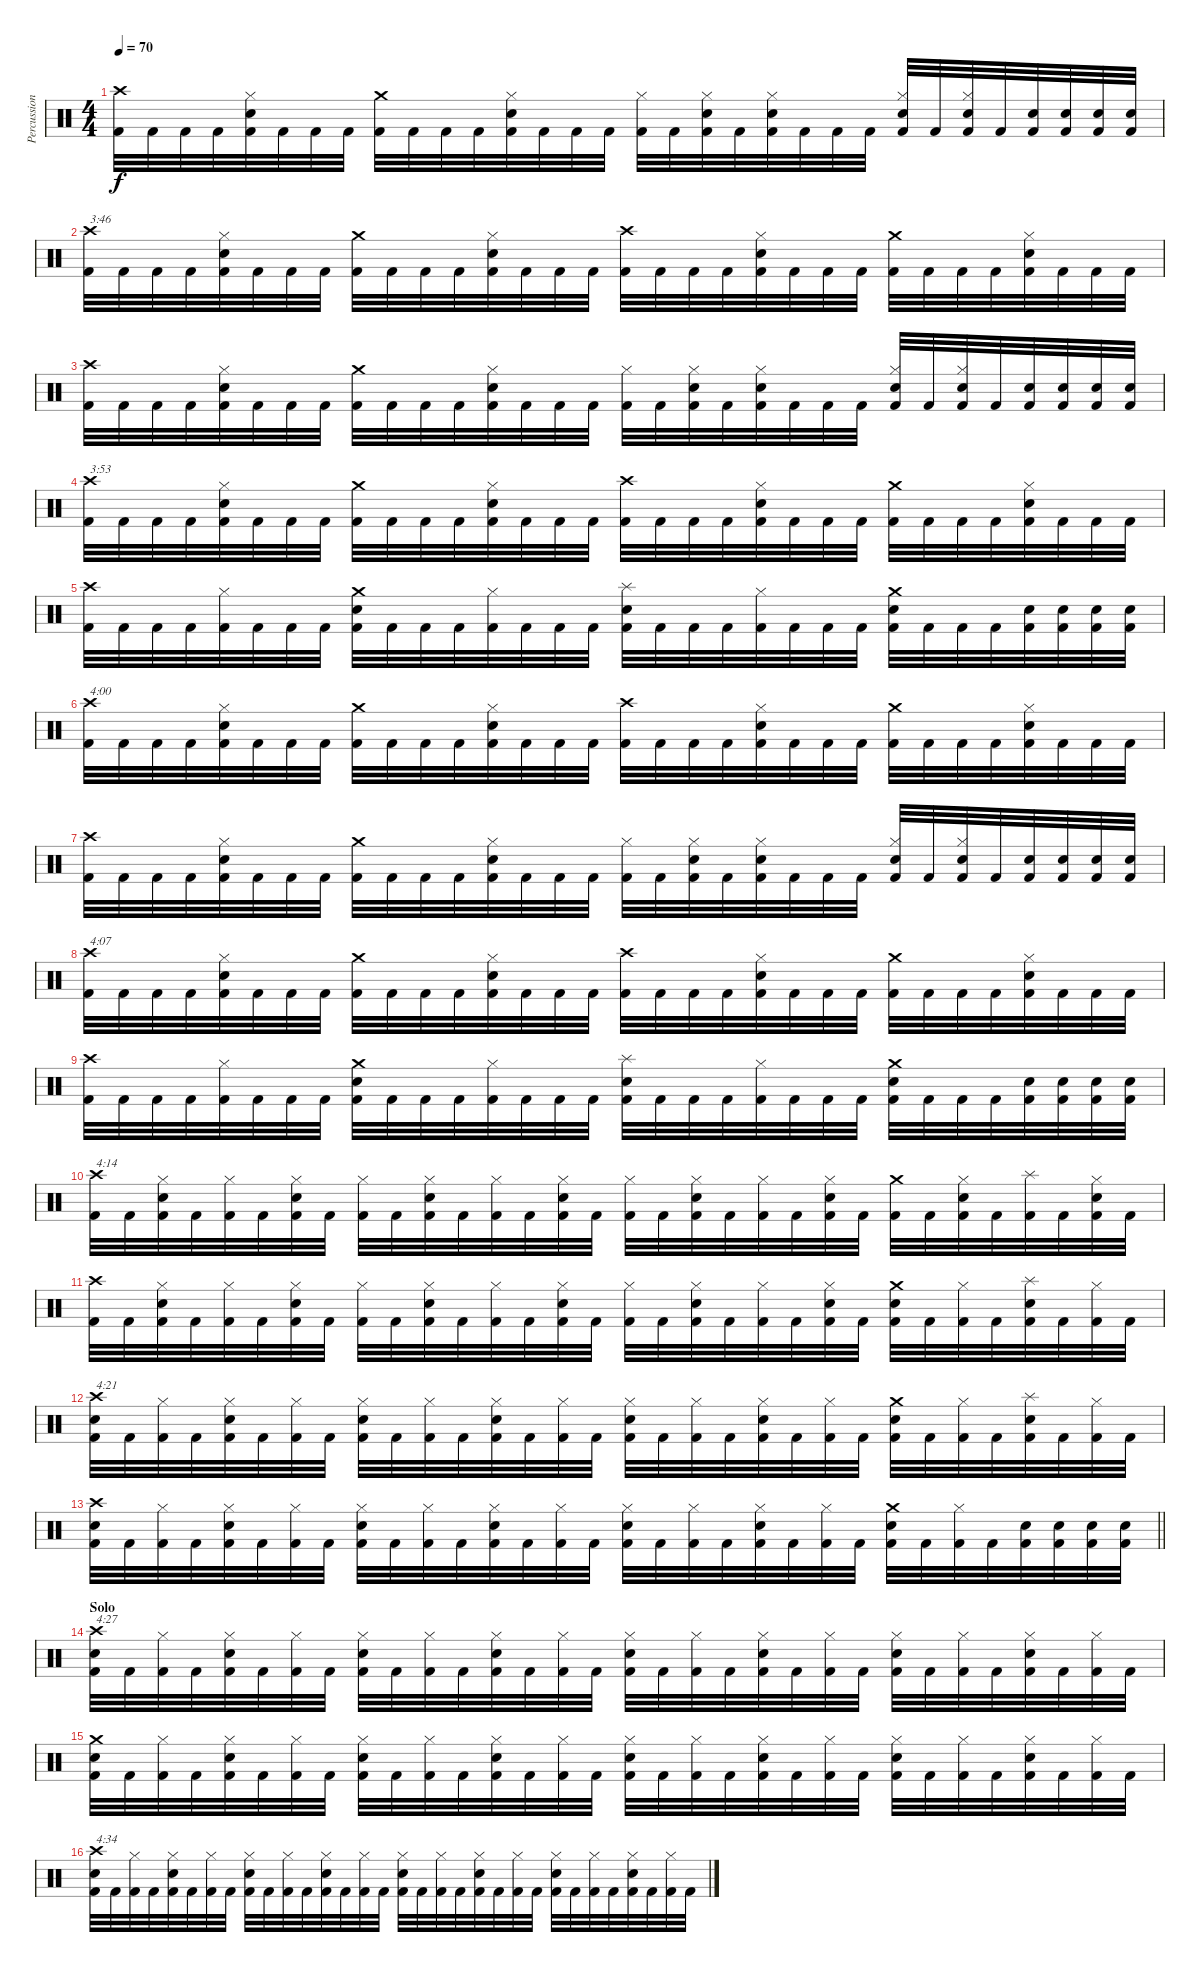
\track ("Percussion" "Percussion") {instrument percussion}
\staff {score}
\articulation defaults
\ts (4 4)
\tempo 70
\clef neutral
\ks c
("Crash high (hit)" "Kick (hit) 2").32{dy f} "Kick (hit) 2".32 "Kick (hit) 2".32 "Kick (hit) 2".32 ("Hi-Hat (closed)" "Snare (hit) 2" "Kick (hit) 2").32 "Kick (hit) 2".32 "Kick (hit) 2".32 "Kick (hit) 2".32 ("Crash medium (hit)" "Kick (hit) 2").32 "Kick (hit) 2".32 "Kick (hit) 2".32 "Kick (hit) 2".32 ("Hi-Hat (closed)" "Snare (hit) 2" "Kick (hit) 2").32 "Kick (hit) 2".32 "Kick (hit) 2".32 "Kick (hit) 2".32 ("Hi-Hat (closed)" "Kick (hit) 2").32 "Kick (hit) 2".32 ("Hi-Hat (closed)" "Snare (hit) 2" "Kick (hit) 2").32 "Kick (hit) 2".32 ("Hi-Hat (closed)" "Snare (hit) 2" "Kick (hit) 2").32 "Kick (hit) 2".32 "Kick (hit) 2".32 "Kick (hit) 2".32 ("Hi-Hat (closed)" "Snare (hit) 2" "Kick (hit) 2").32 "Kick (hit) 2".32 ("Hi-Hat (closed)" "Snare (hit) 2" "Kick (hit) 2").32 "Kick (hit) 2".32 ("Snare (hit) 2" "Kick (hit) 2").32 ("Snare (hit) 2" "Kick (hit) 2").32 ("Snare (hit) 2" "Kick (hit) 2").32 ("Snare (hit) 2" "Kick (hit) 2").32 |
("Crash high (hit)" "Kick (hit) 2").32{txt "3:46"} "Kick (hit) 2".32 "Kick (hit) 2".32 "Kick (hit) 2".32 ("Hi-Hat (closed)" "Snare (hit) 2" "Kick (hit) 2").32 "Kick (hit) 2".32 "Kick (hit) 2".32 "Kick (hit) 2".32 ("Crash medium (hit)" "Kick (hit) 2").32 "Kick (hit) 2".32 "Kick (hit) 2".32 "Kick (hit) 2".32 ("Hi-Hat (closed)" "Snare (hit) 2" "Kick (hit) 2").32 "Kick (hit) 2".32 "Kick (hit) 2".32 "Kick (hit) 2".32 ("Crash high (hit)" "Kick (hit) 2").32 "Kick (hit) 2".32 "Kick (hit) 2".32 "Kick (hit) 2".32 ("Hi-Hat (closed)" "Snare (hit) 2" "Kick (hit) 2").32 "Kick (hit) 2".32 "Kick (hit) 2".32 "Kick (hit) 2".32 ("Crash medium (hit)" "Kick (hit) 2").32 "Kick (hit) 2".32 "Kick (hit) 2".32 "Kick (hit) 2".32 ("Hi-Hat (closed)" "Snare (hit) 2" "Kick (hit) 2").32 "Kick (hit) 2".32 "Kick (hit) 2".32 "Kick (hit) 2".32 |
("Crash high (hit)" "Kick (hit) 2").32 "Kick (hit) 2".32 "Kick (hit) 2".32 "Kick (hit) 2".32 ("Hi-Hat (closed)" "Snare (hit) 2" "Kick (hit) 2").32 "Kick (hit) 2".32 "Kick (hit) 2".32 "Kick (hit) 2".32 ("Crash medium (hit)" "Kick (hit) 2").32 "Kick (hit) 2".32 "Kick (hit) 2".32 "Kick (hit) 2".32 ("Hi-Hat (closed)" "Snare (hit) 2" "Kick (hit) 2").32 "Kick (hit) 2".32 "Kick (hit) 2".32 "Kick (hit) 2".32 ("Hi-Hat (closed)" "Kick (hit) 2").32 "Kick (hit) 2".32 ("Hi-Hat (closed)" "Snare (hit) 2" "Kick (hit) 2").32 "Kick (hit) 2".32 ("Hi-Hat (closed)" "Snare (hit) 2" "Kick (hit) 2").32 "Kick (hit) 2".32 "Kick (hit) 2".32 "Kick (hit) 2".32 ("Hi-Hat (closed)" "Snare (hit) 2" "Kick (hit) 2").32 "Kick (hit) 2".32 ("Hi-Hat (closed)" "Snare (hit) 2" "Kick (hit) 2").32 "Kick (hit) 2".32 ("Snare (hit) 2" "Kick (hit) 2").32 ("Snare (hit) 2" "Kick (hit) 2").32 ("Snare (hit) 2" "Kick (hit) 2").32 ("Snare (hit) 2" "Kick (hit) 2").32 |
("Crash high (hit)" "Kick (hit) 2").32{txt "3:53"} "Kick (hit) 2".32 "Kick (hit) 2".32 "Kick (hit) 2".32 ("Hi-Hat (closed)" "Snare (hit) 2" "Kick (hit) 2").32 "Kick (hit) 2".32 "Kick (hit) 2".32 "Kick (hit) 2".32 ("Crash medium (hit)" "Kick (hit) 2").32 "Kick (hit) 2".32 "Kick (hit) 2".32 "Kick (hit) 2".32 ("Hi-Hat (closed)" "Snare (hit) 2" "Kick (hit) 2").32 "Kick (hit) 2".32 "Kick (hit) 2".32 "Kick (hit) 2".32 ("Crash high (hit)" "Kick (hit) 2").32 "Kick (hit) 2".32 "Kick (hit) 2".32 "Kick (hit) 2".32 ("Hi-Hat (closed)" "Snare (hit) 2" "Kick (hit) 2").32 "Kick (hit) 2".32 "Kick (hit) 2".32 "Kick (hit) 2".32 ("Crash medium (hit)" "Kick (hit) 2").32 "Kick (hit) 2".32 "Kick (hit) 2".32 "Kick (hit) 2".32 ("Hi-Hat (closed)" "Snare (hit) 2" "Kick (hit) 2").32 "Kick (hit) 2".32 "Kick (hit) 2".32 "Kick (hit) 2".32 |
("Crash high (hit)" "Kick (hit) 2").32 "Kick (hit) 2".32 "Kick (hit) 2".32 "Kick (hit) 2".32 ("Hi-Hat (closed)" "Kick (hit) 2").32 "Kick (hit) 2".32 "Kick (hit) 2".32 "Kick (hit) 2".32 ("Crash medium (hit)" "Snare (hit) 2" "Kick (hit) 2").32 "Kick (hit) 2".32 "Kick (hit) 2".32 "Kick (hit) 2".32 ("Hi-Hat (closed)" "Kick (hit) 2").32 "Kick (hit) 2".32 "Kick (hit) 2".32 "Kick (hit) 2".32 ("Splash (hit)" "Snare (hit) 2" "Kick (hit) 2").32 "Kick (hit) 2".32 "Kick (hit) 2".32 "Kick (hit) 2".32 ("Hi-Hat (closed)" "Kick (hit) 2").32 "Kick (hit) 2".32 "Kick (hit) 2".32 "Kick (hit) 2".32 ("Crash medium (hit)" "Snare (hit) 2" "Kick (hit) 2").32 "Kick (hit) 2".32 "Kick (hit) 2".32 "Kick (hit) 2".32 ("Snare (hit) 2" "Kick (hit) 2").32 ("Snare (hit) 2" "Kick (hit) 2").32 ("Snare (hit) 2" "Kick (hit) 2").32 ("Snare (hit) 2" "Kick (hit) 2").32 |
("Crash high (hit)" "Kick (hit) 2").32{txt "4:00"} "Kick (hit) 2".32 "Kick (hit) 2".32 "Kick (hit) 2".32 ("Hi-Hat (closed)" "Snare (hit) 2" "Kick (hit) 2").32 "Kick (hit) 2".32 "Kick (hit) 2".32 "Kick (hit) 2".32 ("Crash medium (hit)" "Kick (hit) 2").32 "Kick (hit) 2".32 "Kick (hit) 2".32 "Kick (hit) 2".32 ("Hi-Hat (closed)" "Snare (hit) 2" "Kick (hit) 2").32 "Kick (hit) 2".32 "Kick (hit) 2".32 "Kick (hit) 2".32 ("Crash high (hit)" "Kick (hit) 2").32 "Kick (hit) 2".32 "Kick (hit) 2".32 "Kick (hit) 2".32 ("Hi-Hat (closed)" "Snare (hit) 2" "Kick (hit) 2").32 "Kick (hit) 2".32 "Kick (hit) 2".32 "Kick (hit) 2".32 ("Crash medium (hit)" "Kick (hit) 2").32 "Kick (hit) 2".32 "Kick (hit) 2".32 "Kick (hit) 2".32 ("Hi-Hat (closed)" "Snare (hit) 2" "Kick (hit) 2").32 "Kick (hit) 2".32 "Kick (hit) 2".32 "Kick (hit) 2".32 |
("Crash high (hit)" "Kick (hit) 2").32 "Kick (hit) 2".32 "Kick (hit) 2".32 "Kick (hit) 2".32 ("Hi-Hat (closed)" "Snare (hit) 2" "Kick (hit) 2").32 "Kick (hit) 2".32 "Kick (hit) 2".32 "Kick (hit) 2".32 ("Crash medium (hit)" "Kick (hit) 2").32 "Kick (hit) 2".32 "Kick (hit) 2".32 "Kick (hit) 2".32 ("Hi-Hat (closed)" "Snare (hit) 2" "Kick (hit) 2").32 "Kick (hit) 2".32 "Kick (hit) 2".32 "Kick (hit) 2".32 ("Hi-Hat (closed)" "Kick (hit) 2").32 "Kick (hit) 2".32 ("Hi-Hat (closed)" "Snare (hit) 2" "Kick (hit) 2").32 "Kick (hit) 2".32 ("Hi-Hat (closed)" "Snare (hit) 2" "Kick (hit) 2").32 "Kick (hit) 2".32 "Kick (hit) 2".32 "Kick (hit) 2".32 ("Hi-Hat (closed)" "Snare (hit) 2" "Kick (hit) 2").32 "Kick (hit) 2".32 ("Hi-Hat (closed)" "Snare (hit) 2" "Kick (hit) 2").32 "Kick (hit) 2".32 ("Snare (hit) 2" "Kick (hit) 2").32 ("Snare (hit) 2" "Kick (hit) 2").32 ("Snare (hit) 2" "Kick (hit) 2").32 ("Snare (hit) 2" "Kick (hit) 2").32 |
("Crash high (hit)" "Kick (hit) 2").32{txt "4:07"} "Kick (hit) 2".32 "Kick (hit) 2".32 "Kick (hit) 2".32 ("Hi-Hat (closed)" "Snare (hit) 2" "Kick (hit) 2").32 "Kick (hit) 2".32 "Kick (hit) 2".32 "Kick (hit) 2".32 ("Crash medium (hit)" "Kick (hit) 2").32 "Kick (hit) 2".32 "Kick (hit) 2".32 "Kick (hit) 2".32 ("Hi-Hat (closed)" "Snare (hit) 2" "Kick (hit) 2").32 "Kick (hit) 2".32 "Kick (hit) 2".32 "Kick (hit) 2".32 ("Crash high (hit)" "Kick (hit) 2").32 "Kick (hit) 2".32 "Kick (hit) 2".32 "Kick (hit) 2".32 ("Hi-Hat (closed)" "Snare (hit) 2" "Kick (hit) 2").32 "Kick (hit) 2".32 "Kick (hit) 2".32 "Kick (hit) 2".32 ("Crash medium (hit)" "Kick (hit) 2").32 "Kick (hit) 2".32 "Kick (hit) 2".32 "Kick (hit) 2".32 ("Hi-Hat (closed)" "Snare (hit) 2" "Kick (hit) 2").32 "Kick (hit) 2".32 "Kick (hit) 2".32 "Kick (hit) 2".32 |
("Crash high (hit)" "Kick (hit) 2").32 "Kick (hit) 2".32 "Kick (hit) 2".32 "Kick (hit) 2".32 ("Hi-Hat (closed)" "Kick (hit) 2").32 "Kick (hit) 2".32 "Kick (hit) 2".32 "Kick (hit) 2".32 ("Crash medium (hit)" "Snare (hit) 2" "Kick (hit) 2").32 "Kick (hit) 2".32 "Kick (hit) 2".32 "Kick (hit) 2".32 ("Hi-Hat (closed)" "Kick (hit) 2").32 "Kick (hit) 2".32 "Kick (hit) 2".32 "Kick (hit) 2".32 ("Splash (hit)" "Snare (hit) 2" "Kick (hit) 2").32 "Kick (hit) 2".32 "Kick (hit) 2".32 "Kick (hit) 2".32 ("Hi-Hat (closed)" "Kick (hit) 2").32 "Kick (hit) 2".32 "Kick (hit) 2".32 "Kick (hit) 2".32 ("Crash medium (hit)" "Snare (hit) 2" "Kick (hit) 2").32 "Kick (hit) 2".32 "Kick (hit) 2".32 "Kick (hit) 2".32 ("Snare (hit) 2" "Kick (hit) 2").32 ("Snare (hit) 2" "Kick (hit) 2").32 ("Snare (hit) 2" "Kick (hit) 2").32 ("Snare (hit) 2" "Kick (hit) 2").32 |
("Crash high (hit)" "Kick (hit) 2").32{txt "4:14"} "Kick (hit) 2".32 ("Hi-Hat (closed)" "Snare (hit) 2" "Kick (hit) 2").32 "Kick (hit) 2".32 ("Hi-Hat (closed)" "Kick (hit) 2").32 "Kick (hit) 2".32 ("Hi-Hat (closed)" "Snare (hit) 2" "Kick (hit) 2").32 "Kick (hit) 2".32 ("Hi-Hat (closed)" "Kick (hit) 2").32 "Kick (hit) 2".32 ("Hi-Hat (closed)" "Snare (hit) 2" "Kick (hit) 2").32 "Kick (hit) 2".32 ("Hi-Hat (closed)" "Kick (hit) 2").32 "Kick (hit) 2".32 ("Hi-Hat (closed)" "Snare (hit) 2" "Kick (hit) 2").32 "Kick (hit) 2".32 ("Hi-Hat (closed)" "Kick (hit) 2").32 "Kick (hit) 2".32 ("Hi-Hat (closed)" "Snare (hit) 2" "Kick (hit) 2").32 "Kick (hit) 2".32 ("Hi-Hat (closed)" "Kick (hit) 2").32 "Kick (hit) 2".32 ("Hi-Hat (closed)" "Snare (hit) 2" "Kick (hit) 2").32 "Kick (hit) 2".32 ("Crash medium (hit)" "Kick (hit) 2").32 "Kick (hit) 2".32 ("Hi-Hat (closed)" "Snare (hit) 2" "Kick (hit) 2").32 "Kick (hit) 2".32 ("Splash (hit)" "Kick (hit) 2").32 "Kick (hit) 2".32 ("Hi-Hat (closed)" "Snare (hit) 2" "Kick (hit) 2").32 "Kick (hit) 2".32 |
("Crash high (hit)" "Kick (hit) 2").32 "Kick (hit) 2".32 ("Hi-Hat (closed)" "Snare (hit) 2" "Kick (hit) 2").32 "Kick (hit) 2".32 ("Hi-Hat (closed)" "Kick (hit) 2").32 "Kick (hit) 2".32 ("Hi-Hat (closed)" "Snare (hit) 2" "Kick (hit) 2").32 "Kick (hit) 2".32 ("Hi-Hat (closed)" "Kick (hit) 2").32 "Kick (hit) 2".32 ("Hi-Hat (closed)" "Snare (hit) 2" "Kick (hit) 2").32 "Kick (hit) 2".32 ("Hi-Hat (closed)" "Kick (hit) 2").32 "Kick (hit) 2".32 ("Hi-Hat (closed)" "Snare (hit) 2" "Kick (hit) 2").32 "Kick (hit) 2".32 ("Hi-Hat (closed)" "Kick (hit) 2").32 "Kick (hit) 2".32 ("Hi-Hat (closed)" "Snare (hit) 2" "Kick (hit) 2").32 "Kick (hit) 2".32 ("Hi-Hat (closed)" "Kick (hit) 2").32 "Kick (hit) 2".32 ("Hi-Hat (closed)" "Snare (hit) 2" "Kick (hit) 2").32 "Kick (hit) 2".32 ("Crash medium (hit)" "Snare (hit) 2" "Kick (hit) 2").32 "Kick (hit) 2".32 ("Hi-Hat (closed)" "Kick (hit) 2").32 "Kick (hit) 2".32 ("Splash (hit)" "Snare (hit) 2" "Kick (hit) 2").32 "Kick (hit) 2".32 ("Hi-Hat (closed)" "Kick (hit) 2").32 "Kick (hit) 2".32 |
("Crash high (hit)" "Snare (hit) 2" "Kick (hit) 2").32{txt "4:21"} "Kick (hit) 2".32 ("Hi-Hat (closed)" "Kick (hit) 2").32 "Kick (hit) 2".32 ("Hi-Hat (closed)" "Snare (hit) 2" "Kick (hit) 2").32 "Kick (hit) 2".32 ("Hi-Hat (closed)" "Kick (hit) 2").32 "Kick (hit) 2".32 ("Hi-Hat (closed)" "Snare (hit) 2" "Kick (hit) 2").32 "Kick (hit) 2".32 ("Hi-Hat (closed)" "Kick (hit) 2").32 "Kick (hit) 2".32 ("Hi-Hat (closed)" "Snare (hit) 2" "Kick (hit) 2").32 "Kick (hit) 2".32 ("Hi-Hat (closed)" "Kick (hit) 2").32 "Kick (hit) 2".32 ("Hi-Hat (closed)" "Snare (hit) 2" "Kick (hit) 2").32 "Kick (hit) 2".32 ("Hi-Hat (closed)" "Kick (hit) 2").32 "Kick (hit) 2".32 ("Hi-Hat (closed)" "Snare (hit) 2" "Kick (hit) 2").32 "Kick (hit) 2".32 ("Hi-Hat (closed)" "Kick (hit) 2").32 "Kick (hit) 2".32 ("Crash medium (hit)" "Snare (hit) 2" "Kick (hit) 2").32 "Kick (hit) 2".32 ("Hi-Hat (closed)" "Kick (hit) 2").32 "Kick (hit) 2".32 ("Splash (hit)" "Snare (hit) 2" "Kick (hit) 2").32 "Kick (hit) 2".32 ("Hi-Hat (closed)" "Kick (hit) 2").32 "Kick (hit) 2".32 |
\barLineRight lightlight
("Crash high (hit)" "Snare (hit) 2" "Kick (hit) 2").32 "Kick (hit) 2".32 ("Hi-Hat (closed)" "Kick (hit) 2").32 "Kick (hit) 2".32 ("Hi-Hat (closed)" "Snare (hit) 2" "Kick (hit) 2").32 "Kick (hit) 2".32 ("Hi-Hat (closed)" "Kick (hit) 2").32 "Kick (hit) 2".32 ("Hi-Hat (closed)" "Snare (hit) 2" "Kick (hit) 2").32 "Kick (hit) 2".32 ("Hi-Hat (closed)" "Kick (hit) 2").32 "Kick (hit) 2".32 ("Hi-Hat (closed)" "Snare (hit) 2" "Kick (hit) 2").32 "Kick (hit) 2".32 ("Hi-Hat (closed)" "Kick (hit) 2").32 "Kick (hit) 2".32 ("Hi-Hat (closed)" "Snare (hit) 2" "Kick (hit) 2").32 "Kick (hit) 2".32 ("Hi-Hat (closed)" "Kick (hit) 2").32 "Kick (hit) 2".32 ("Hi-Hat (closed)" "Snare (hit) 2" "Kick (hit) 2").32 "Kick (hit) 2".32 ("Hi-Hat (closed)" "Kick (hit) 2").32 "Kick (hit) 2".32 ("Crash medium (hit)" "Snare (hit) 2" "Kick (hit) 2").32 "Kick (hit) 2".32 ("Hi-Hat (closed)" "Kick (hit) 2").32 "Kick (hit) 2".32 ("Snare (hit) 2" "Kick (hit) 2").32 ("Snare (hit) 2" "Kick (hit) 2").32 ("Snare (hit) 2" "Kick (hit) 2").32 ("Snare (hit) 2" "Kick (hit) 2").32 |
\section ("" "Solo")
("Crash high (hit)" "Snare (hit) 2" "Kick (hit) 2").32{txt "4:27"} "Kick (hit) 2".32 ("Hi-Hat (closed)" "Kick (hit) 2").32 "Kick (hit) 2".32 ("Hi-Hat (closed)" "Snare (hit) 2" "Kick (hit) 2").32 "Kick (hit) 2".32 ("Hi-Hat (closed)" "Kick (hit) 2").32 "Kick (hit) 2".32 ("Hi-Hat (closed)" "Snare (hit) 2" "Kick (hit) 2").32 "Kick (hit) 2".32 ("Hi-Hat (closed)" "Kick (hit) 2").32 "Kick (hit) 2".32 ("Hi-Hat (closed)" "Snare (hit) 2" "Kick (hit) 2").32 "Kick (hit) 2".32 ("Hi-Hat (closed)" "Kick (hit) 2").32 "Kick (hit) 2".32 ("Hi-Hat (closed)" "Snare (hit) 2" "Kick (hit) 2").32 "Kick (hit) 2".32 ("Hi-Hat (closed)" "Kick (hit) 2").32 "Kick (hit) 2".32 ("Hi-Hat (closed)" "Snare (hit) 2" "Kick (hit) 2").32 "Kick (hit) 2".32 ("Hi-Hat (closed)" "Kick (hit) 2").32 "Kick (hit) 2".32 ("Hi-Hat (closed)" "Snare (hit) 2" "Kick (hit) 2").32 "Kick (hit) 2".32 ("Hi-Hat (closed)" "Kick (hit) 2").32 "Kick (hit) 2".32 ("Hi-Hat (closed)" "Snare (hit) 2" "Kick (hit) 2").32 "Kick (hit) 2".32 ("Hi-Hat (closed)" "Kick (hit) 2").32 "Kick (hit) 2".32 |
("Crash medium (hit)" "Snare (hit) 2" "Kick (hit) 2").32 "Kick (hit) 2".32 ("Hi-Hat (closed)" "Kick (hit) 2").32 "Kick (hit) 2".32 ("Hi-Hat (closed)" "Snare (hit) 2" "Kick (hit) 2").32 "Kick (hit) 2".32 ("Hi-Hat (closed)" "Kick (hit) 2").32 "Kick (hit) 2".32 ("Hi-Hat (closed)" "Snare (hit) 2" "Kick (hit) 2").32 "Kick (hit) 2".32 ("Hi-Hat (closed)" "Kick (hit) 2").32 "Kick (hit) 2".32 ("Hi-Hat (closed)" "Snare (hit) 2" "Kick (hit) 2").32 "Kick (hit) 2".32 ("Hi-Hat (closed)" "Kick (hit) 2").32 "Kick (hit) 2".32 ("Hi-Hat (closed)" "Snare (hit) 2" "Kick (hit) 2").32 "Kick (hit) 2".32 ("Hi-Hat (closed)" "Kick (hit) 2").32 "Kick (hit) 2".32 ("Hi-Hat (closed)" "Snare (hit) 2" "Kick (hit) 2").32 "Kick (hit) 2".32 ("Hi-Hat (closed)" "Kick (hit) 2").32 "Kick (hit) 2".32 ("Hi-Hat (closed)" "Snare (hit) 2" "Kick (hit) 2").32 "Kick (hit) 2".32 ("Hi-Hat (closed)" "Kick (hit) 2").32 "Kick (hit) 2".32 ("Hi-Hat (closed)" "Snare (hit) 2" "Kick (hit) 2").32 "Kick (hit) 2".32 ("Hi-Hat (closed)" "Kick (hit) 2").32 "Kick (hit) 2".32 |
("Crash high (hit)" "Snare (hit) 2" "Kick (hit) 2").32{txt "4:34"} "Kick (hit) 2".32 ("Hi-Hat (closed)" "Kick (hit) 2").32 "Kick (hit) 2".32 ("Hi-Hat (closed)" "Snare (hit) 2" "Kick (hit) 2").32 "Kick (hit) 2".32 ("Hi-Hat (closed)" "Kick (hit) 2").32 "Kick (hit) 2".32 ("Hi-Hat (closed)" "Snare (hit) 2" "Kick (hit) 2").32 "Kick (hit) 2".32 ("Hi-Hat (closed)" "Kick (hit) 2").32 "Kick (hit) 2".32 ("Hi-Hat (closed)" "Snare (hit) 2" "Kick (hit) 2").32 "Kick (hit) 2".32 ("Hi-Hat (closed)" "Kick (hit) 2").32 "Kick (hit) 2".32 ("Hi-Hat (closed)" "Snare (hit) 2" "Kick (hit) 2").32 "Kick (hit) 2".32 ("Hi-Hat (closed)" "Kick (hit) 2").32 "Kick (hit) 2".32 ("Hi-Hat (closed)" "Snare (hit) 2" "Kick (hit) 2").32 "Kick (hit) 2".32 ("Hi-Hat (closed)" "Kick (hit) 2").32 "Kick (hit) 2".32 ("Hi-Hat (closed)" "Snare (hit) 2" "Kick (hit) 2").32 "Kick (hit) 2".32 ("Hi-Hat (closed)" "Kick (hit) 2").32 "Kick (hit) 2".32 ("Hi-Hat (closed)" "Snare (hit) 2" "Kick (hit) 2").32 "Kick (hit) 2".32 ("Hi-Hat (closed)" "Kick (hit) 2").32 "Kick (hit) 2".32
